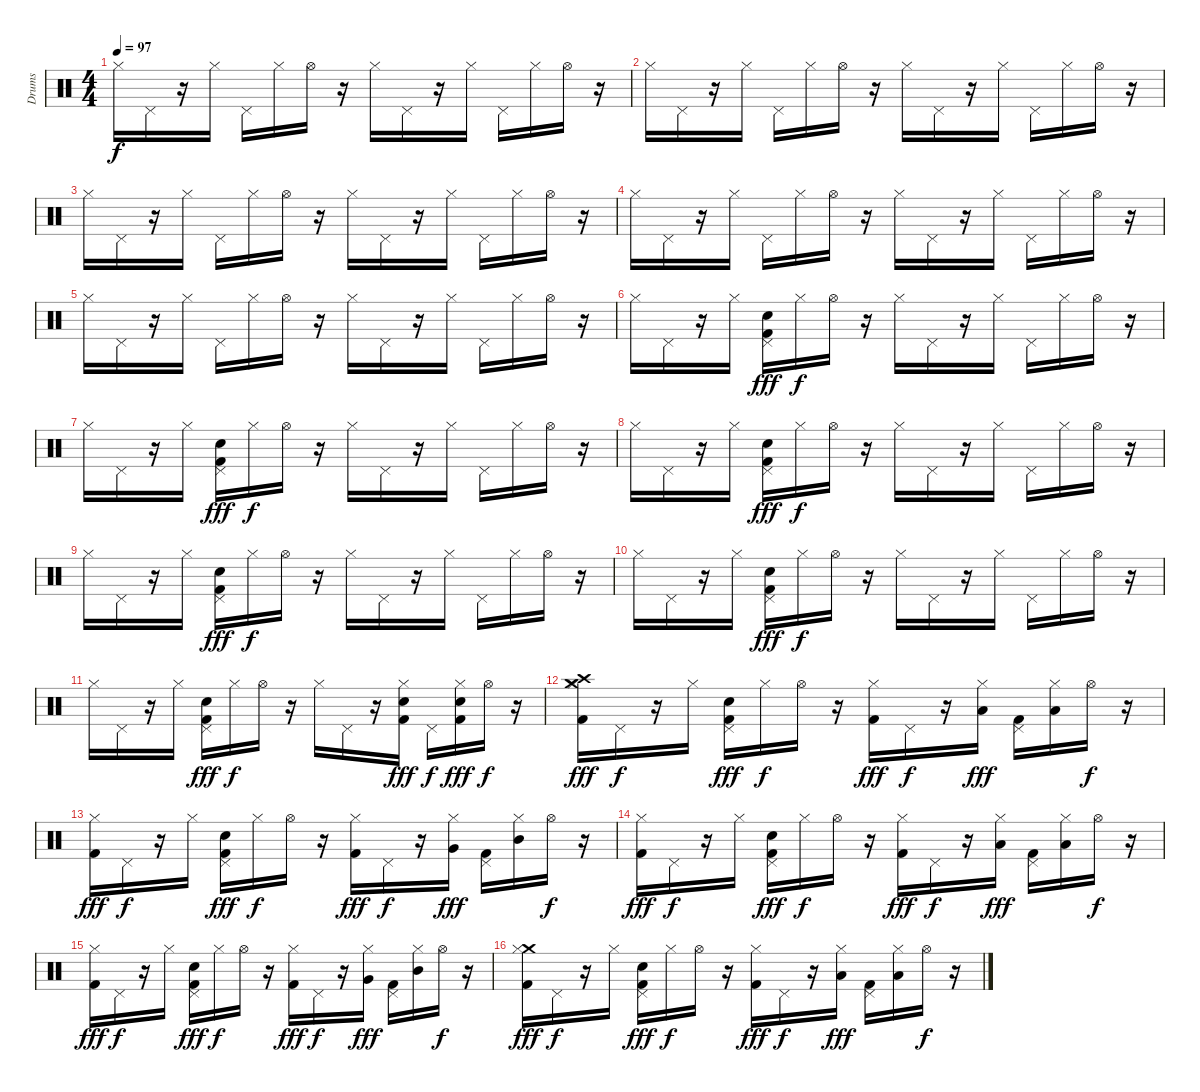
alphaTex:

\track ("Drums" "Drums") {instrument percussion}
\staff {score}
\articulation defaults
\ts (4 4)
\tempo 97
\clef neutral
\ks c "Hi-Hat (closed)".16{dy f} "Pedal Hi-Hat (hit)".16
r.16 "Hi-Hat (closed)".16 "Pedal Hi-Hat (hit)".16 "Hi-Hat (closed)".16 "Hi-Hat (open)".16 r.16 "Hi-Hat (closed)".16 "Pedal Hi-Hat (hit)".16 r.16 "Hi-Hat (closed)".16 "Pedal Hi-Hat (hit)".16 "Hi-Hat (closed)".16 "Hi-Hat (open)".16 r.16 |
"Hi-Hat (closed)".16 "Pedal Hi-Hat (hit)".16 r.16 "Hi-Hat (closed)".16 "Pedal Hi-Hat (hit)".16 "Hi-Hat (closed)".16 "Hi-Hat (open)".16 r.16 "Hi-Hat (closed)".16 "Pedal Hi-Hat (hit)".16 r.16 "Hi-Hat (closed)".16 "Pedal Hi-Hat (hit)".16 "Hi-Hat (closed)".16 "Hi-Hat (open)".16 r.16 |
"Hi-Hat (closed)".16 "Pedal Hi-Hat (hit)".16 r.16 "Hi-Hat (closed)".16 "Pedal Hi-Hat (hit)".16 "Hi-Hat (closed)".16 "Hi-Hat (open)".16 r.16 "Hi-Hat (closed)".16 "Pedal Hi-Hat (hit)".16 r.16 "Hi-Hat (closed)".16 "Pedal Hi-Hat (hit)".16 "Hi-Hat (closed)".16 "Hi-Hat (open)".16 r.16 |
"Hi-Hat (closed)".16 "Pedal Hi-Hat (hit)".16 r.16 "Hi-Hat (closed)".16 "Pedal Hi-Hat (hit)".16 "Hi-Hat (closed)".16 "Hi-Hat (open)".16 r.16 "Hi-Hat (closed)".16 "Pedal Hi-Hat (hit)".16 r.16 "Hi-Hat (closed)".16 "Pedal Hi-Hat (hit)".16 "Hi-Hat (closed)".16 "Hi-Hat (open)".16 r.16 |
"Hi-Hat (closed)".16 "Pedal Hi-Hat (hit)".16 r.16 "Hi-Hat (closed)".16 "Pedal Hi-Hat (hit)".16 "Hi-Hat (closed)".16 "Hi-Hat (open)".16 r.16 "Hi-Hat (closed)".16 "Pedal Hi-Hat (hit)".16 r.16 "Hi-Hat (closed)".16 "Pedal Hi-Hat (hit)".16 "Hi-Hat (closed)".16 "Hi-Hat (open)".16 r.16 |
"Hi-Hat (closed)".16 "Pedal Hi-Hat (hit)".16 r.16 "Hi-Hat (closed)".16 ("Kick (hit) 2" "Snare (hit) 2" "Pedal Hi-Hat (hit)").16{dy fff} "Hi-Hat (closed)".16{dy f} "Hi-Hat (open)".16 r.16 "Hi-Hat (closed)".16 "Pedal Hi-Hat (hit)".16 r.16 "Hi-Hat (closed)".16 "Pedal Hi-Hat (hit)".16 "Hi-Hat (closed)".16 "Hi-Hat (open)".16 r.16 |
"Hi-Hat (closed)".16 "Pedal Hi-Hat (hit)".16 r.16 "Hi-Hat (closed)".16 ("Kick (hit) 2" "Snare (hit) 2" "Pedal Hi-Hat (hit)").16{dy fff} "Hi-Hat (closed)".16{dy f} "Hi-Hat (open)".16 r.16 "Hi-Hat (closed)".16 "Pedal Hi-Hat (hit)".16 r.16 "Hi-Hat (closed)".16 "Pedal Hi-Hat (hit)".16 "Hi-Hat (closed)".16 "Hi-Hat (open)".16 r.16 |
"Hi-Hat (closed)".16 "Pedal Hi-Hat (hit)".16 r.16 "Hi-Hat (closed)".16 ("Kick (hit) 2" "Snare (hit) 2" "Pedal Hi-Hat (hit)").16{dy fff} "Hi-Hat (closed)".16{dy f} "Hi-Hat (open)".16 r.16 "Hi-Hat (closed)".16 "Pedal Hi-Hat (hit)".16 r.16 "Hi-Hat (closed)".16 "Pedal Hi-Hat (hit)".16 "Hi-Hat (closed)".16 "Hi-Hat (open)".16 r.16 |
"Hi-Hat (closed)".16 "Pedal Hi-Hat (hit)".16 r.16 "Hi-Hat (closed)".16 ("Kick (hit) 2" "Snare (hit) 2" "Pedal Hi-Hat (hit)").16{dy fff} "Hi-Hat (closed)".16{dy f} "Hi-Hat (open)".16 r.16 "Hi-Hat (closed)".16 "Pedal Hi-Hat (hit)".16 r.16 "Hi-Hat (closed)".16 "Pedal Hi-Hat (hit)".16 "Hi-Hat (closed)".16 "Hi-Hat (open)".16 r.16 |
"Hi-Hat (closed)".16 "Pedal Hi-Hat (hit)".16 r.16 "Hi-Hat (closed)".16 ("Kick (hit) 2" "Snare (hit) 2" "Pedal Hi-Hat (hit)").16{dy fff} "Hi-Hat (closed)".16{dy f} "Hi-Hat (open)".16 r.16 "Hi-Hat (closed)".16 "Pedal Hi-Hat (hit)".16 r.16 "Hi-Hat (closed)".16 "Pedal Hi-Hat (hit)".16 "Hi-Hat (closed)".16 "Hi-Hat (open)".16 r.16 |
"Hi-Hat (closed)".16 "Pedal Hi-Hat (hit)".16 r.16 "Hi-Hat (closed)".16 ("Kick (hit) 2" "Snare (hit) 2" "Pedal Hi-Hat (hit)").16{dy fff} "Hi-Hat (closed)".16{dy f} "Hi-Hat (open)".16 r.16 "Hi-Hat (closed)".16 "Pedal Hi-Hat (hit)".16 r.16 ("Kick (hit) 2" "Snare (hit) 2" "Hi-Hat (closed)").16{dy fff} "Pedal Hi-Hat (hit)".16{dy f} ("Kick (hit) 2" "Snare (hit) 2" "Hi-Hat (closed)").16{dy fff} "Hi-Hat (open)".16{dy f} r.16 |
("Crash high (hit)" "Crash medium (hit)" "Kick (hit) 2" "Hi-Hat (closed)").16{dy fff} "Pedal Hi-Hat (hit)".16{dy f} r.16 "Hi-Hat (closed)".16 ("Snare (hit) 2" "Kick (hit) 2" "Pedal Hi-Hat (hit)").16{dy fff} "Hi-Hat (closed)".16{dy f} "Hi-Hat (open)".16 r.16 ("Hi-Hat (closed)" "Kick (hit) 2").16{dy fff} "Pedal Hi-Hat (hit)".16{dy f} r.16 ("Hi-Hat (closed)" "Low Tom (hit)").16{dy fff} ("Pedal Hi-Hat (hit)" "Kick (hit) 2").16 ("Hi-Hat (closed)" "Low Floor Tom (hit)").16 "Hi-Hat (open)".16{dy f} r.16 |
("Hi-Hat (closed)" "Kick (hit) 2").16{dy fff} "Pedal Hi-Hat (hit)".16{dy f} r.16 "Hi-Hat (closed)".16 ("Electric Snare (hit)" "Pedal Hi-Hat (hit)" "Kick (hit) 2").16{dy fff} "Hi-Hat (closed)".16{dy f} "Hi-Hat (open)".16 r.16 ("Kick (hit) 2" "Hi-Hat (closed)").16{dy fff} "Pedal Hi-Hat (hit)".16{dy f} r.16 ("Hi-Hat (closed)" "Very Low Tom (hit)").16{dy fff} ("Kick (hit) 2" "Pedal Hi-Hat (hit)").16 ("Hi-Hat (closed)" "Mid Tom (hit)").16 "Hi-Hat (open)".16{dy f} r.16 |
("Kick (hit) 2" "Hi-Hat (closed)").16{dy fff} "Pedal Hi-Hat (hit)".16{dy f} r.16 "Hi-Hat (closed)".16 ("Snare (hit) 2" "Kick (hit) 2" "Pedal Hi-Hat (hit)").16{dy fff} "Hi-Hat (closed)".16{dy f} "Hi-Hat (open)".16 r.16 ("Hi-Hat (closed)" "Kick (hit) 2").16{dy fff} "Pedal Hi-Hat (hit)".16{dy f} r.16 ("Hi-Hat (closed)" "Low Tom (hit)").16{dy fff} ("Pedal Hi-Hat (hit)" "Kick (hit) 2").16 ("Hi-Hat (closed)" "Low Floor Tom (hit)").16 "Hi-Hat (open)".16{dy f} r.16 |
("Hi-Hat (closed)" "Kick (hit) 2").16{dy fff} "Pedal Hi-Hat (hit)".16{dy f} r.16 "Hi-Hat (closed)".16 ("Electric Snare (hit)" "Pedal Hi-Hat (hit)" "Kick (hit) 2").16{dy fff} "Hi-Hat (closed)".16{dy f} "Hi-Hat (open)".16 r.16 ("Kick (hit) 2" "Hi-Hat (closed)").16{dy fff} "Pedal Hi-Hat (hit)".16{dy f} r.16 ("Hi-Hat (closed)" "Very Low Tom (hit)").16{dy fff} ("Kick (hit) 2" "Pedal Hi-Hat (hit)").16 ("Hi-Hat (closed)" "Mid Tom (hit)").16 "Hi-Hat (open)".16{dy f} r.16 |
("Crash medium (hit)" "Kick (hit) 2" "Hi-Hat (closed)").16{dy fff} "Pedal Hi-Hat (hit)".16{dy f} r.16 "Hi-Hat (closed)".16 ("Snare (hit) 2" "Kick (hit) 2" "Pedal Hi-Hat (hit)").16{dy fff} "Hi-Hat (closed)".16{dy f} "Hi-Hat (open)".16 r.16 ("Hi-Hat (closed)" "Kick (hit) 2").16{dy fff} "Pedal Hi-Hat (hit)".16{dy f} r.16 ("Hi-Hat (closed)" "Low Tom (hit)").16{dy fff} ("Pedal Hi-Hat (hit)" "Kick (hit) 2").16 ("Hi-Hat (closed)" "Low Floor Tom (hit)").16 "Hi-Hat (open)".16{dy f} r.16
